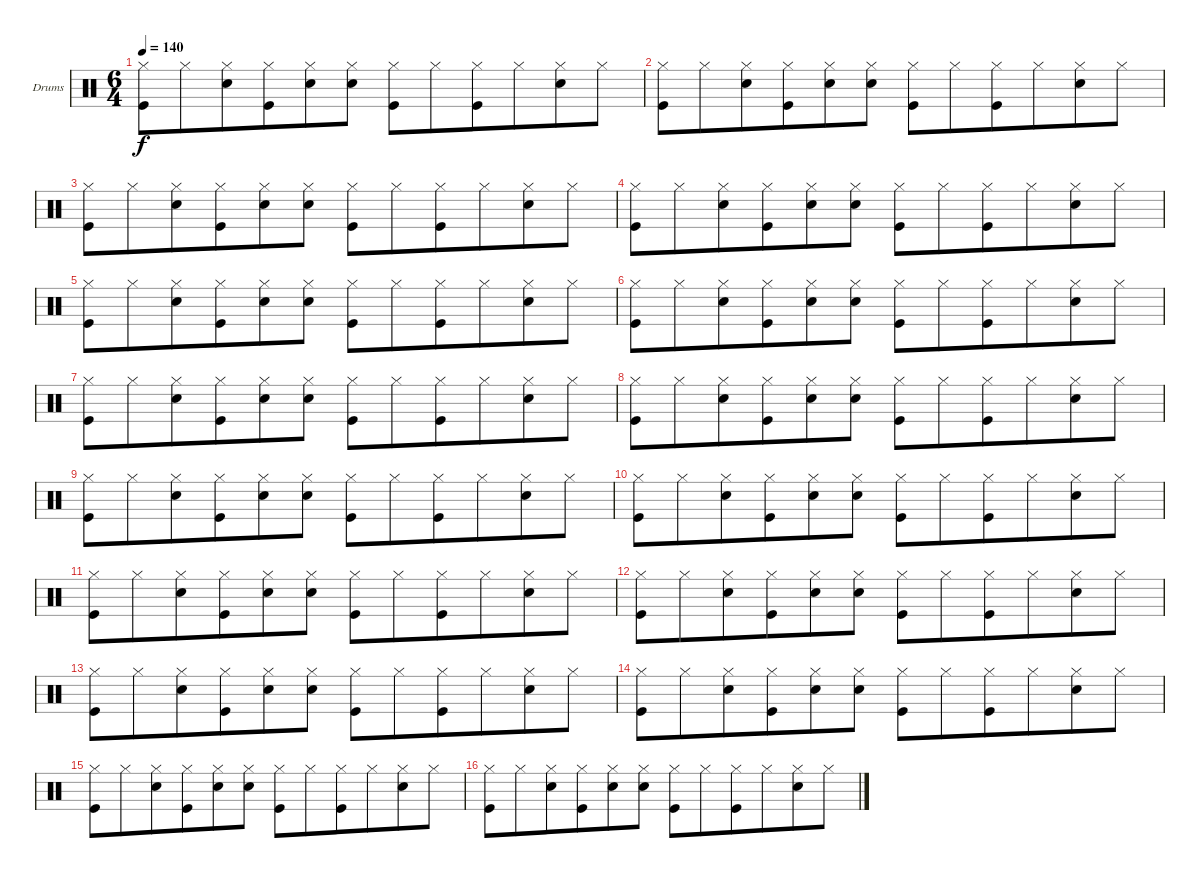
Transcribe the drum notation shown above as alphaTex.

\bracketExtendMode groupsimilarinstruments
\firstSystemTrackNameOrientation horizontal
\otherSystemsTrackNameOrientation horizontal
\track ("Peter Ulrich (Drums)" "Drums") {instrument percussion}
\staff {score}
\articulation defaults
\ts (6 4)
\beaming (8 6 6)
\tempo 140
\clef neutral
\ks c
("Hi-Hat (closed)" "Kick (hit)").8{dy f} "Hi-Hat (closed)".8 ("Hi-Hat (closed)" "Snare (hit) 2").8 ("Hi-Hat (closed)" "Kick (hit)").8 ("Hi-Hat (closed)" "Snare (hit) 2").8 ("Hi-Hat (closed)" "Snare (hit) 2").8 ("Hi-Hat (closed)" "Kick (hit)").8 "Hi-Hat (closed)".8 ("Hi-Hat (closed)" "Kick (hit)").8 "Hi-Hat (closed)".8 ("Hi-Hat (closed)" "Snare (hit) 2").8 "Hi-Hat (closed)".8 |
("Hi-Hat (closed)" "Kick (hit)").8 "Hi-Hat (closed)".8 ("Hi-Hat (closed)" "Snare (hit) 2").8 ("Hi-Hat (closed)" "Kick (hit)").8 ("Hi-Hat (closed)" "Snare (hit) 2").8 ("Hi-Hat (closed)" "Snare (hit) 2").8 ("Hi-Hat (closed)" "Kick (hit)").8 "Hi-Hat (closed)".8 ("Hi-Hat (closed)" "Kick (hit)").8 "Hi-Hat (closed)".8 ("Hi-Hat (closed)" "Snare (hit) 2").8 "Hi-Hat (closed)".8 |
("Hi-Hat (closed)" "Kick (hit)").8 "Hi-Hat (closed)".8 ("Hi-Hat (closed)" "Snare (hit) 2").8 ("Hi-Hat (closed)" "Kick (hit)").8 ("Hi-Hat (closed)" "Snare (hit) 2").8 ("Hi-Hat (closed)" "Snare (hit) 2").8 ("Hi-Hat (closed)" "Kick (hit)").8 "Hi-Hat (closed)".8 ("Hi-Hat (closed)" "Kick (hit)").8 "Hi-Hat (closed)".8 ("Hi-Hat (closed)" "Snare (hit) 2").8 "Hi-Hat (closed)".8 |
("Hi-Hat (closed)" "Kick (hit)").8 "Hi-Hat (closed)".8 ("Hi-Hat (closed)" "Snare (hit) 2").8 ("Hi-Hat (closed)" "Kick (hit)").8 ("Hi-Hat (closed)" "Snare (hit) 2").8 ("Hi-Hat (closed)" "Snare (hit) 2").8 ("Hi-Hat (closed)" "Kick (hit)").8 "Hi-Hat (closed)".8 ("Hi-Hat (closed)" "Kick (hit)").8 "Hi-Hat (closed)".8 ("Hi-Hat (closed)" "Snare (hit) 2").8 "Hi-Hat (closed)".8 |
("Hi-Hat (closed)" "Kick (hit)").8 "Hi-Hat (closed)".8 ("Hi-Hat (closed)" "Snare (hit) 2").8 ("Hi-Hat (closed)" "Kick (hit)").8 ("Hi-Hat (closed)" "Snare (hit) 2").8 ("Hi-Hat (closed)" "Snare (hit) 2").8 ("Hi-Hat (closed)" "Kick (hit)").8 "Hi-Hat (closed)".8 ("Hi-Hat (closed)" "Kick (hit)").8 "Hi-Hat (closed)".8 ("Hi-Hat (closed)" "Snare (hit) 2").8 "Hi-Hat (closed)".8 |
("Hi-Hat (closed)" "Kick (hit)").8 "Hi-Hat (closed)".8 ("Hi-Hat (closed)" "Snare (hit) 2").8 ("Hi-Hat (closed)" "Kick (hit)").8 ("Hi-Hat (closed)" "Snare (hit) 2").8 ("Hi-Hat (closed)" "Snare (hit) 2").8 ("Hi-Hat (closed)" "Kick (hit)").8 "Hi-Hat (closed)".8 ("Hi-Hat (closed)" "Kick (hit)").8 "Hi-Hat (closed)".8 ("Hi-Hat (closed)" "Snare (hit) 2").8 "Hi-Hat (closed)".8 |
("Hi-Hat (closed)" "Kick (hit)").8 "Hi-Hat (closed)".8 ("Hi-Hat (closed)" "Snare (hit) 2").8 ("Hi-Hat (closed)" "Kick (hit)").8 ("Hi-Hat (closed)" "Snare (hit) 2").8 ("Hi-Hat (closed)" "Snare (hit) 2").8 ("Hi-Hat (closed)" "Kick (hit)").8 "Hi-Hat (closed)".8 ("Hi-Hat (closed)" "Kick (hit)").8 "Hi-Hat (closed)".8 ("Hi-Hat (closed)" "Snare (hit) 2").8 "Hi-Hat (closed)".8 |
("Hi-Hat (closed)" "Kick (hit)").8 "Hi-Hat (closed)".8 ("Hi-Hat (closed)" "Snare (hit) 2").8 ("Hi-Hat (closed)" "Kick (hit)").8 ("Hi-Hat (closed)" "Snare (hit) 2").8 ("Hi-Hat (closed)" "Snare (hit) 2").8 ("Hi-Hat (closed)" "Kick (hit)").8 "Hi-Hat (closed)".8 ("Hi-Hat (closed)" "Kick (hit)").8 "Hi-Hat (closed)".8 ("Hi-Hat (closed)" "Snare (hit) 2").8 "Hi-Hat (closed)".8 |
("Hi-Hat (closed)" "Kick (hit)").8 "Hi-Hat (closed)".8 ("Hi-Hat (closed)" "Snare (hit) 2").8 ("Hi-Hat (closed)" "Kick (hit)").8 ("Hi-Hat (closed)" "Snare (hit) 2").8 ("Hi-Hat (closed)" "Snare (hit) 2").8 ("Hi-Hat (closed)" "Kick (hit)").8 "Hi-Hat (closed)".8 ("Hi-Hat (closed)" "Kick (hit)").8 "Hi-Hat (closed)".8 ("Hi-Hat (closed)" "Snare (hit) 2").8 "Hi-Hat (closed)".8 |
("Hi-Hat (closed)" "Kick (hit)").8 "Hi-Hat (closed)".8 ("Hi-Hat (closed)" "Snare (hit) 2").8 ("Hi-Hat (closed)" "Kick (hit)").8 ("Hi-Hat (closed)" "Snare (hit) 2").8 ("Hi-Hat (closed)" "Snare (hit) 2").8 ("Hi-Hat (closed)" "Kick (hit)").8 "Hi-Hat (closed)".8 ("Hi-Hat (closed)" "Kick (hit)").8 "Hi-Hat (closed)".8 ("Hi-Hat (closed)" "Snare (hit) 2").8 "Hi-Hat (closed)".8 |
("Hi-Hat (closed)" "Kick (hit)").8 "Hi-Hat (closed)".8 ("Hi-Hat (closed)" "Snare (hit) 2").8 ("Hi-Hat (closed)" "Kick (hit)").8 ("Hi-Hat (closed)" "Snare (hit) 2").8 ("Hi-Hat (closed)" "Snare (hit) 2").8 ("Hi-Hat (closed)" "Kick (hit)").8 "Hi-Hat (closed)".8 ("Hi-Hat (closed)" "Kick (hit)").8 "Hi-Hat (closed)".8 ("Hi-Hat (closed)" "Snare (hit) 2").8 "Hi-Hat (closed)".8 |
("Hi-Hat (closed)" "Kick (hit)").8 "Hi-Hat (closed)".8 ("Hi-Hat (closed)" "Snare (hit) 2").8 ("Hi-Hat (closed)" "Kick (hit)").8 ("Hi-Hat (closed)" "Snare (hit) 2").8 ("Hi-Hat (closed)" "Snare (hit) 2").8 ("Hi-Hat (closed)" "Kick (hit)").8 "Hi-Hat (closed)".8 ("Hi-Hat (closed)" "Kick (hit)").8 "Hi-Hat (closed)".8 ("Hi-Hat (closed)" "Snare (hit) 2").8 "Hi-Hat (closed)".8 |
("Hi-Hat (closed)" "Kick (hit)").8 "Hi-Hat (closed)".8 ("Hi-Hat (closed)" "Snare (hit) 2").8 ("Hi-Hat (closed)" "Kick (hit)").8 ("Hi-Hat (closed)" "Snare (hit) 2").8 ("Hi-Hat (closed)" "Snare (hit) 2").8 ("Hi-Hat (closed)" "Kick (hit)").8 "Hi-Hat (closed)".8 ("Hi-Hat (closed)" "Kick (hit)").8 "Hi-Hat (closed)".8 ("Hi-Hat (closed)" "Snare (hit) 2").8 "Hi-Hat (closed)".8 |
("Hi-Hat (closed)" "Kick (hit)").8 "Hi-Hat (closed)".8 ("Hi-Hat (closed)" "Snare (hit) 2").8 ("Hi-Hat (closed)" "Kick (hit)").8 ("Hi-Hat (closed)" "Snare (hit) 2").8 ("Hi-Hat (closed)" "Snare (hit) 2").8 ("Hi-Hat (closed)" "Kick (hit)").8 "Hi-Hat (closed)".8 ("Hi-Hat (closed)" "Kick (hit)").8 "Hi-Hat (closed)".8 ("Hi-Hat (closed)" "Snare (hit) 2").8 "Hi-Hat (closed)".8 |
("Hi-Hat (closed)" "Kick (hit)").8 "Hi-Hat (closed)".8 ("Hi-Hat (closed)" "Snare (hit) 2").8 ("Hi-Hat (closed)" "Kick (hit)").8 ("Hi-Hat (closed)" "Snare (hit) 2").8 ("Hi-Hat (closed)" "Snare (hit) 2").8 ("Hi-Hat (closed)" "Kick (hit)").8 "Hi-Hat (closed)".8 ("Hi-Hat (closed)" "Kick (hit)").8 "Hi-Hat (closed)".8 ("Hi-Hat (closed)" "Snare (hit) 2").8 "Hi-Hat (closed)".8 |
("Hi-Hat (closed)" "Kick (hit)").8 "Hi-Hat (closed)".8 ("Hi-Hat (closed)" "Snare (hit) 2").8 ("Hi-Hat (closed)" "Kick (hit)").8 ("Hi-Hat (closed)" "Snare (hit) 2").8 ("Hi-Hat (closed)" "Snare (hit) 2").8 ("Hi-Hat (closed)" "Kick (hit)").8 "Hi-Hat (closed)".8 ("Hi-Hat (closed)" "Kick (hit)").8 "Hi-Hat (closed)".8 ("Hi-Hat (closed)" "Snare (hit) 2").8 "Hi-Hat (closed)".8
